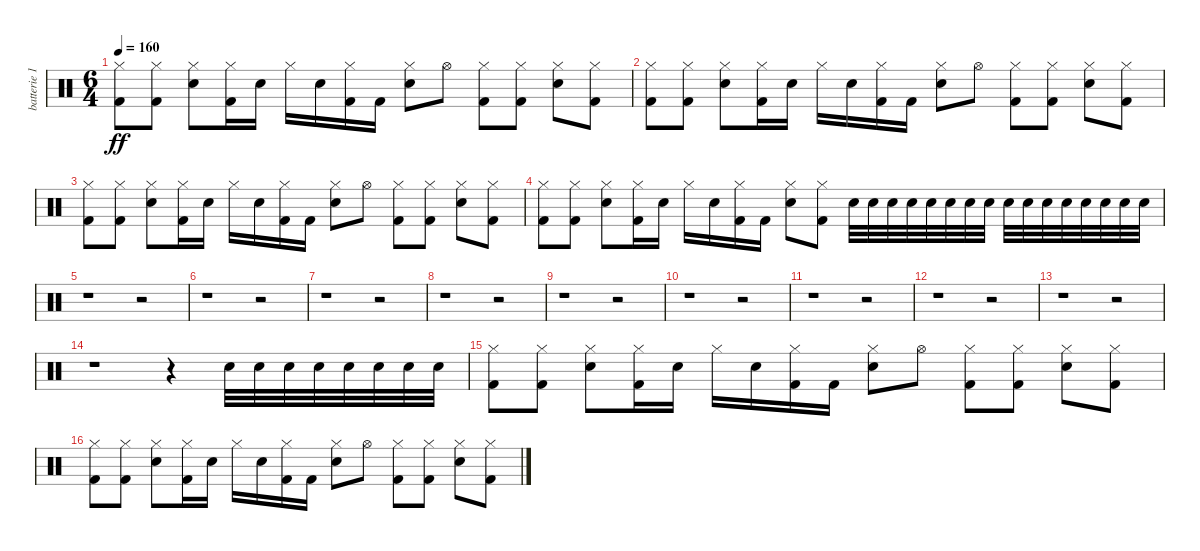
\track ("batterie 1" "batterie 1") {instrument percussion}
\staff {score}
\articulation defaults
\ts (6 4)
\tempo 160
\clef neutral
\ks c
("Kick (hit) 2" "Hi-Hat (closed)").8{dy ff} ("Kick (hit) 2" "Hi-Hat (closed)").8 ("Electric Snare (hit)" "Hi-Hat (closed)").8 ("Kick (hit) 2" "Hi-Hat (closed)").16 "Electric Snare (hit)".16 "Hi-Hat (closed)".16 "Electric Snare (hit)".16 ("Kick (hit) 2" "Hi-Hat (closed)").16 "Kick (hit) 2".16 ("Electric Snare (hit)" "Hi-Hat (closed)").8 "Hi-Hat (open)".8 ("Kick (hit) 2" "Hi-Hat (closed)").8 ("Kick (hit) 2" "Hi-Hat (closed)").8 ("Electric Snare (hit)" "Hi-Hat (closed)").8 ("Kick (hit) 2" "Hi-Hat (closed)").8 |
("Kick (hit) 2" "Hi-Hat (closed)").8 ("Kick (hit) 2" "Hi-Hat (closed)").8 ("Electric Snare (hit)" "Hi-Hat (closed)").8 ("Kick (hit) 2" "Hi-Hat (closed)").16 "Electric Snare (hit)".16 "Hi-Hat (closed)".16 "Electric Snare (hit)".16 ("Kick (hit) 2" "Hi-Hat (closed)").16 "Kick (hit) 2".16 ("Electric Snare (hit)" "Hi-Hat (closed)").8 "Hi-Hat (open)".8 ("Kick (hit) 2" "Hi-Hat (closed)").8 ("Kick (hit) 2" "Hi-Hat (closed)").8 ("Electric Snare (hit)" "Hi-Hat (closed)").8 ("Kick (hit) 2" "Hi-Hat (closed)").8 |
("Kick (hit) 2" "Hi-Hat (closed)").8 ("Kick (hit) 2" "Hi-Hat (closed)").8 ("Electric Snare (hit)" "Hi-Hat (closed)").8 ("Kick (hit) 2" "Hi-Hat (closed)").16 "Electric Snare (hit)".16 "Hi-Hat (closed)".16 "Electric Snare (hit)".16 ("Kick (hit) 2" "Hi-Hat (closed)").16 "Kick (hit) 2".16 ("Electric Snare (hit)" "Hi-Hat (closed)").8 "Hi-Hat (open)".8 ("Kick (hit) 2" "Hi-Hat (closed)").8 ("Kick (hit) 2" "Hi-Hat (closed)").8 ("Electric Snare (hit)" "Hi-Hat (closed)").8 ("Kick (hit) 2" "Hi-Hat (closed)").8 |
("Kick (hit) 2" "Hi-Hat (closed)").8 ("Kick (hit) 2" "Hi-Hat (closed)").8 ("Electric Snare (hit)" "Hi-Hat (closed)").8 ("Kick (hit) 2" "Hi-Hat (closed)").16 "Electric Snare (hit)".16 "Hi-Hat (closed)".16 "Electric Snare (hit)".16 ("Kick (hit) 2" "Hi-Hat (closed)").16 "Kick (hit) 2".16 ("Electric Snare (hit)" "Hi-Hat (closed)").8 ("Kick (hit) 2" "Hi-Hat (closed)").8 "Electric Snare (hit)".32 "Electric Snare (hit)".32 "Electric Snare (hit)".32 "Electric Snare (hit)".32 "Electric Snare (hit)".32 "Electric Snare (hit)".32 "Electric Snare (hit)".32 "Electric Snare (hit)".32 "Electric Snare (hit)".32 "Electric Snare (hit)".32 "Electric Snare (hit)".32 "Electric Snare (hit)".32 "Electric Snare (hit)".32 "Electric Snare (hit)".32 "Electric Snare (hit)".32 "Electric Snare (hit)".32 |
r.1 r.2 |
r.1 r.2 |
r.1 r.2 |
r.1 r.2 |
r.1 r.2 |
r.1 r.2 |
r.1 r.2 |
r.1 r.2 |
r.1 r.2 |
r.1 r.4 "Electric Snare (hit)".32 "Electric Snare (hit)".32 "Electric Snare (hit)".32 "Electric Snare (hit)".32 "Electric Snare (hit)".32 "Electric Snare (hit)".32 "Electric Snare (hit)".32 "Electric Snare (hit)".32 |
("Kick (hit) 2" "Hi-Hat (closed)").8 ("Kick (hit) 2" "Hi-Hat (closed)").8 ("Electric Snare (hit)" "Hi-Hat (closed)").8 ("Kick (hit) 2" "Hi-Hat (closed)").16 "Electric Snare (hit)".16 "Hi-Hat (closed)".16 "Electric Snare (hit)".16 ("Kick (hit) 2" "Hi-Hat (closed)").16 "Kick (hit) 2".16 ("Electric Snare (hit)" "Hi-Hat (closed)").8 "Hi-Hat (open)".8 ("Kick (hit) 2" "Hi-Hat (closed)").8 ("Kick (hit) 2" "Hi-Hat (closed)").8 ("Electric Snare (hit)" "Hi-Hat (closed)").8 ("Kick (hit) 2" "Hi-Hat (closed)").8 |
("Kick (hit) 2" "Hi-Hat (closed)").8 ("Kick (hit) 2" "Hi-Hat (closed)").8 ("Electric Snare (hit)" "Hi-Hat (closed)").8 ("Kick (hit) 2" "Hi-Hat (closed)").16 "Electric Snare (hit)".16 "Hi-Hat (closed)".16 "Electric Snare (hit)".16 ("Kick (hit) 2" "Hi-Hat (closed)").16 "Kick (hit) 2".16 ("Electric Snare (hit)" "Hi-Hat (closed)").8 "Hi-Hat (open)".8 ("Kick (hit) 2" "Hi-Hat (closed)").8 ("Kick (hit) 2" "Hi-Hat (closed)").8 ("Electric Snare (hit)" "Hi-Hat (closed)").8 ("Kick (hit) 2" "Hi-Hat (closed)").8
